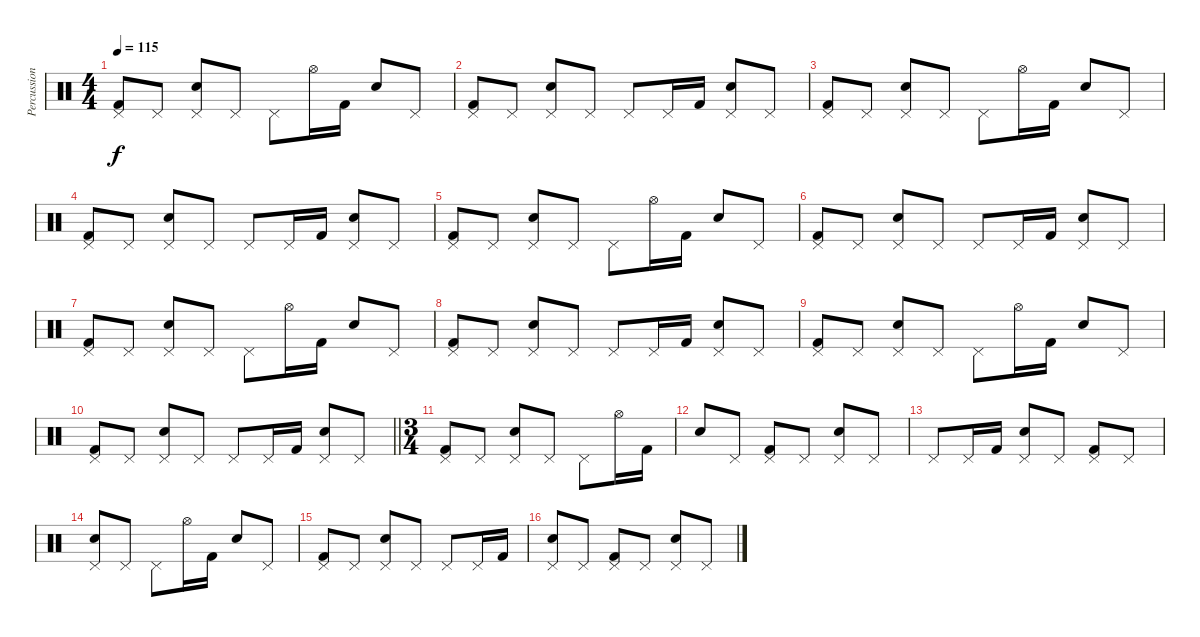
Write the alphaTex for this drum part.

\track ("Percussions" "Percussion") {instrument percussion}
\staff {score}
\articulation defaults
\ts (4 4)
\tempo 115
\clef neutral
\ks c
("Pedal Hi-Hat (hit)" "Kick (hit) 2").8{dy f} "Pedal Hi-Hat (hit)".8 ("Pedal Hi-Hat (hit)" "Snare (hit) 2").8 "Pedal Hi-Hat (hit)".8 "Pedal Hi-Hat (hit)".8 "Hi-Hat (open)".16 "Kick (hit) 2".16 "Snare (hit) 2".8 "Pedal Hi-Hat (hit)".8 |
("Pedal Hi-Hat (hit)" "Kick (hit) 2").8 "Pedal Hi-Hat (hit)".8 ("Pedal Hi-Hat (hit)" "Snare (hit) 2").8 "Pedal Hi-Hat (hit)".8 "Pedal Hi-Hat (hit)".8 "Pedal Hi-Hat (hit)".16 "Kick (hit) 2".16 ("Pedal Hi-Hat (hit)" "Snare (hit) 2").8 "Pedal Hi-Hat (hit)".8 |
("Pedal Hi-Hat (hit)" "Kick (hit) 2").8 "Pedal Hi-Hat (hit)".8 ("Pedal Hi-Hat (hit)" "Snare (hit) 2").8 "Pedal Hi-Hat (hit)".8 "Pedal Hi-Hat (hit)".8 "Hi-Hat (open)".16 "Kick (hit) 2".16 "Snare (hit) 2".8 "Pedal Hi-Hat (hit)".8 |
("Pedal Hi-Hat (hit)" "Kick (hit) 2").8 "Pedal Hi-Hat (hit)".8 ("Pedal Hi-Hat (hit)" "Snare (hit) 2").8 "Pedal Hi-Hat (hit)".8 "Pedal Hi-Hat (hit)".8 "Pedal Hi-Hat (hit)".16 "Kick (hit) 2".16 ("Pedal Hi-Hat (hit)" "Snare (hit) 2").8 "Pedal Hi-Hat (hit)".8 |
("Pedal Hi-Hat (hit)" "Kick (hit) 2").8 "Pedal Hi-Hat (hit)".8 ("Pedal Hi-Hat (hit)" "Snare (hit) 2").8 "Pedal Hi-Hat (hit)".8 "Pedal Hi-Hat (hit)".8 "Hi-Hat (open)".16 "Kick (hit) 2".16 "Snare (hit) 2".8 "Pedal Hi-Hat (hit)".8 |
("Pedal Hi-Hat (hit)" "Kick (hit) 2").8 "Pedal Hi-Hat (hit)".8 ("Pedal Hi-Hat (hit)" "Snare (hit) 2").8 "Pedal Hi-Hat (hit)".8 "Pedal Hi-Hat (hit)".8 "Pedal Hi-Hat (hit)".16 "Kick (hit) 2".16 ("Pedal Hi-Hat (hit)" "Snare (hit) 2").8 "Pedal Hi-Hat (hit)".8 |
("Pedal Hi-Hat (hit)" "Kick (hit) 2").8 "Pedal Hi-Hat (hit)".8 ("Pedal Hi-Hat (hit)" "Snare (hit) 2").8 "Pedal Hi-Hat (hit)".8 "Pedal Hi-Hat (hit)".8 "Hi-Hat (open)".16 "Kick (hit) 2".16 "Snare (hit) 2".8 "Pedal Hi-Hat (hit)".8 |
("Pedal Hi-Hat (hit)" "Kick (hit) 2").8 "Pedal Hi-Hat (hit)".8 ("Pedal Hi-Hat (hit)" "Snare (hit) 2").8 "Pedal Hi-Hat (hit)".8 "Pedal Hi-Hat (hit)".8 "Pedal Hi-Hat (hit)".16 "Kick (hit) 2".16 ("Pedal Hi-Hat (hit)" "Snare (hit) 2").8 "Pedal Hi-Hat (hit)".8 |
("Pedal Hi-Hat (hit)" "Kick (hit) 2").8 "Pedal Hi-Hat (hit)".8 ("Pedal Hi-Hat (hit)" "Snare (hit) 2").8 "Pedal Hi-Hat (hit)".8 "Pedal Hi-Hat (hit)".8 "Hi-Hat (open)".16 "Kick (hit) 2".16 "Snare (hit) 2".8 "Pedal Hi-Hat (hit)".8 |
\barLineRight lightlight
("Pedal Hi-Hat (hit)" "Kick (hit) 2").8 "Pedal Hi-Hat (hit)".8 ("Pedal Hi-Hat (hit)" "Snare (hit) 2").8 "Pedal Hi-Hat (hit)".8 "Pedal Hi-Hat (hit)".8 "Pedal Hi-Hat (hit)".16 "Kick (hit) 2".16 ("Pedal Hi-Hat (hit)" "Snare (hit) 2").8 "Pedal Hi-Hat (hit)".8 |
\ts (3 4)
("Pedal Hi-Hat (hit)" "Kick (hit) 2").8 "Pedal Hi-Hat (hit)".8 ("Pedal Hi-Hat (hit)" "Snare (hit) 2").8 "Pedal Hi-Hat (hit)".8 "Pedal Hi-Hat (hit)".8 "Hi-Hat (open)".16 "Kick (hit) 2".16 |
"Snare (hit) 2".8 "Pedal Hi-Hat (hit)".8 ("Pedal Hi-Hat (hit)" "Kick (hit) 2").8 "Pedal Hi-Hat (hit)".8 ("Pedal Hi-Hat (hit)" "Snare (hit) 2").8 "Pedal Hi-Hat (hit)".8 |
"Pedal Hi-Hat (hit)".8 "Pedal Hi-Hat (hit)".16 "Kick (hit) 2".16 ("Pedal Hi-Hat (hit)" "Snare (hit) 2").8 "Pedal Hi-Hat (hit)".8 ("Pedal Hi-Hat (hit)" "Kick (hit) 2").8 "Pedal Hi-Hat (hit)".8 |
("Pedal Hi-Hat (hit)" "Snare (hit) 2").8 "Pedal Hi-Hat (hit)".8 "Pedal Hi-Hat (hit)".8 "Hi-Hat (open)".16 "Kick (hit) 2".16 "Snare (hit) 2".8 "Pedal Hi-Hat (hit)".8 |
("Pedal Hi-Hat (hit)" "Kick (hit) 2").8 "Pedal Hi-Hat (hit)".8 ("Pedal Hi-Hat (hit)" "Snare (hit) 2").8 "Pedal Hi-Hat (hit)".8 "Pedal Hi-Hat (hit)".8 "Pedal Hi-Hat (hit)".16 "Kick (hit) 2".16 |
("Pedal Hi-Hat (hit)" "Snare (hit) 2").8 "Pedal Hi-Hat (hit)".8 ("Pedal Hi-Hat (hit)" "Kick (hit) 2").8 "Pedal Hi-Hat (hit)".8 ("Pedal Hi-Hat (hit)" "Snare (hit) 2").8 "Pedal Hi-Hat (hit)".8
